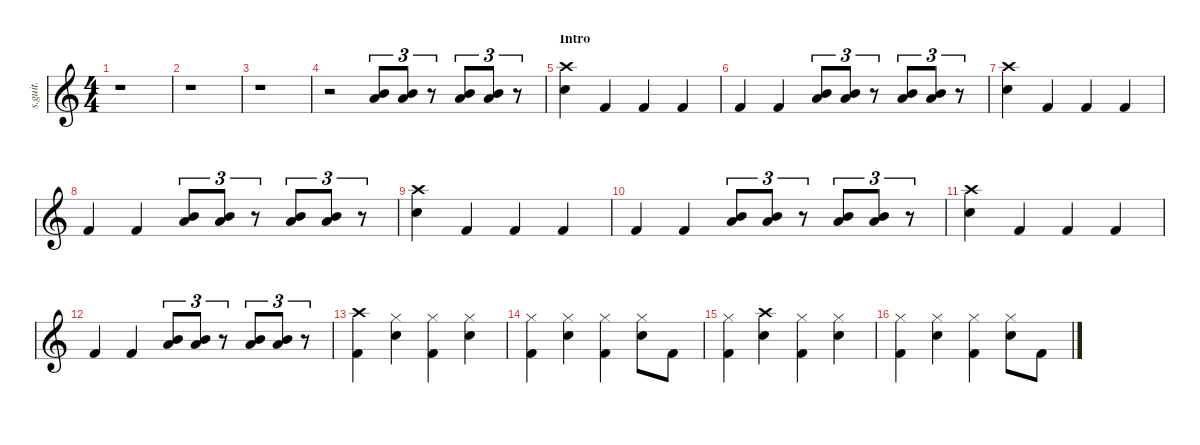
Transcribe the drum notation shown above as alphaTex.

\defaultSystemsLayout 4
\hideDynamics
\bracketExtendMode nobrackets
\track ("Lars Ulrich (Drums)" "s.guit.") {instrument percussion}
\staff {score}
\articulation defaults
\ts (4 4)
\beaming (8 2 2 2 2)
\tempo (118 hide)
\clef g2
\ks c
r.1{dy f} |
r.1 |
r.1 |
r.2 ("Low Tom (hit)" "Mid Tom (hit)").8{tu (3 2) lyrics (0 "") lyrics (1 "") lyrics (2 "") lyrics (3 "") lyrics (4 "")} ("Low Tom (hit)" "Mid Tom (hit)").8{tu (3 2) lyrics (0 "") lyrics (1 "") lyrics (2 "") lyrics (3 "") lyrics (4 "")} r.8{tu (3 2)} ("Low Tom (hit)" "Mid Tom (hit)").8{tu (3 2) lyrics (0 "") lyrics (1 "") lyrics (2 "") lyrics (3 "") lyrics (4 "")} ("Low Tom (hit)" "Mid Tom (hit)").8{tu (3 2) lyrics (0 "") lyrics (1 "") lyrics (2 "") lyrics (3 "") lyrics (4 "")} r.8{tu (3 2)} |
\section ("" "Intro")
("Crash high (hit)" "Snare (hit) 2").4{lyrics (0 "") lyrics (1 "") lyrics (2 "") lyrics (3 "") lyrics (4 "")} "Kick (hit) 2".4{lyrics (0 "") lyrics (1 "") lyrics (2 "") lyrics (3 "") lyrics (4 "")} "Kick (hit) 2".4{lyrics (0 "") lyrics (1 "") lyrics (2 "") lyrics (3 "") lyrics (4 "")} "Kick (hit) 2".4{lyrics (0 "") lyrics (1 "") lyrics (2 "") lyrics (3 "") lyrics (4 "")} |
"Kick (hit) 2".4{lyrics (0 "") lyrics (1 "") lyrics (2 "") lyrics (3 "") lyrics (4 "")} "Kick (hit) 2".4{lyrics (0 "") lyrics (1 "") lyrics (2 "") lyrics (3 "") lyrics (4 "")} ("Low Tom (hit)" "Mid Tom (hit)").8{tu (3 2) lyrics (0 "") lyrics (1 "") lyrics (2 "") lyrics (3 "") lyrics (4 "")} ("Low Tom (hit)" "Mid Tom (hit)").8{tu (3 2) lyrics (0 "") lyrics (1 "") lyrics (2 "") lyrics (3 "") lyrics (4 "")} r.8{tu (3 2)} ("Low Tom (hit)" "Mid Tom (hit)").8{tu (3 2) lyrics (0 "") lyrics (1 "") lyrics (2 "") lyrics (3 "") lyrics (4 "")} ("Low Tom (hit)" "Mid Tom (hit)").8{tu (3 2) lyrics (0 "") lyrics (1 "") lyrics (2 "") lyrics (3 "") lyrics (4 "")} r.8{tu (3 2)} |
("Crash high (hit)" "Snare (hit) 2").4{lyrics (0 "") lyrics (1 "") lyrics (2 "") lyrics (3 "") lyrics (4 "")} "Kick (hit) 2".4{lyrics (0 "") lyrics (1 "") lyrics (2 "") lyrics (3 "") lyrics (4 "")} "Kick (hit) 2".4{lyrics (0 "") lyrics (1 "") lyrics (2 "") lyrics (3 "") lyrics (4 "")} "Kick (hit) 2".4{lyrics (0 "") lyrics (1 "") lyrics (2 "") lyrics (3 "") lyrics (4 "")} |
"Kick (hit) 2".4{lyrics (0 "") lyrics (1 "") lyrics (2 "") lyrics (3 "") lyrics (4 "")} "Kick (hit) 2".4{lyrics (0 "") lyrics (1 "") lyrics (2 "") lyrics (3 "") lyrics (4 "")} ("Low Tom (hit)" "Mid Tom (hit)").8{tu (3 2) lyrics (0 "") lyrics (1 "") lyrics (2 "") lyrics (3 "") lyrics (4 "")} ("Low Tom (hit)" "Mid Tom (hit)").8{tu (3 2) lyrics (0 "") lyrics (1 "") lyrics (2 "") lyrics (3 "") lyrics (4 "")} r.8{tu (3 2)} ("Low Tom (hit)" "Mid Tom (hit)").8{tu (3 2) lyrics (0 "") lyrics (1 "") lyrics (2 "") lyrics (3 "") lyrics (4 "")} ("Low Tom (hit)" "Mid Tom (hit)").8{tu (3 2) lyrics (0 "") lyrics (1 "") lyrics (2 "") lyrics (3 "") lyrics (4 "")} r.8{tu (3 2)} |
("Crash high (hit)" "Snare (hit) 2").4{lyrics (0 "") lyrics (1 "") lyrics (2 "") lyrics (3 "") lyrics (4 "")} "Kick (hit) 2".4{lyrics (0 "") lyrics (1 "") lyrics (2 "") lyrics (3 "") lyrics (4 "")} "Kick (hit) 2".4{lyrics (0 "") lyrics (1 "") lyrics (2 "") lyrics (3 "") lyrics (4 "")} "Kick (hit) 2".4{lyrics (0 "") lyrics (1 "") lyrics (2 "") lyrics (3 "") lyrics (4 "")} |
"Kick (hit) 2".4{lyrics (0 "") lyrics (1 "") lyrics (2 "") lyrics (3 "") lyrics (4 "")} "Kick (hit) 2".4{lyrics (0 "") lyrics (1 "") lyrics (2 "") lyrics (3 "") lyrics (4 "")} ("Low Tom (hit)" "Mid Tom (hit)").8{tu (3 2) lyrics (0 "") lyrics (1 "") lyrics (2 "") lyrics (3 "") lyrics (4 "")} ("Low Tom (hit)" "Mid Tom (hit)").8{tu (3 2) lyrics (0 "") lyrics (1 "") lyrics (2 "") lyrics (3 "") lyrics (4 "")} r.8{tu (3 2)} ("Low Tom (hit)" "Mid Tom (hit)").8{tu (3 2) lyrics (0 "") lyrics (1 "") lyrics (2 "") lyrics (3 "") lyrics (4 "")} ("Low Tom (hit)" "Mid Tom (hit)").8{tu (3 2) lyrics (0 "") lyrics (1 "") lyrics (2 "") lyrics (3 "") lyrics (4 "")} r.8{tu (3 2)} |
("Crash high (hit)" "Snare (hit) 2").4{lyrics (0 "") lyrics (1 "") lyrics (2 "") lyrics (3 "") lyrics (4 "")} "Kick (hit) 2".4{lyrics (0 "") lyrics (1 "") lyrics (2 "") lyrics (3 "") lyrics (4 "")} "Kick (hit) 2".4{lyrics (0 "") lyrics (1 "") lyrics (2 "") lyrics (3 "") lyrics (4 "")} "Kick (hit) 2".4{lyrics (0 "") lyrics (1 "") lyrics (2 "") lyrics (3 "") lyrics (4 "")} |
"Kick (hit) 2".4{lyrics (0 "") lyrics (1 "") lyrics (2 "") lyrics (3 "") lyrics (4 "")} "Kick (hit) 2".4{lyrics (0 "") lyrics (1 "") lyrics (2 "") lyrics (3 "") lyrics (4 "")} ("Low Tom (hit)" "Mid Tom (hit)").8{tu (3 2) lyrics (0 "") lyrics (1 "") lyrics (2 "") lyrics (3 "") lyrics (4 "")} ("Low Tom (hit)" "Mid Tom (hit)").8{tu (3 2) lyrics (0 "") lyrics (1 "") lyrics (2 "") lyrics (3 "") lyrics (4 "")} r.8{tu (3 2)} ("Low Tom (hit)" "Mid Tom (hit)").8{tu (3 2) lyrics (0 "") lyrics (1 "") lyrics (2 "") lyrics (3 "") lyrics (4 "")} ("Low Tom (hit)" "Mid Tom (hit)").8{tu (3 2) lyrics (0 "") lyrics (1 "") lyrics (2 "") lyrics (3 "") lyrics (4 "")} r.8{tu (3 2)} |
("Crash high (hit)" "Kick (hit) 2").4{lyrics (0 "") lyrics (1 "") lyrics (2 "") lyrics (3 "") lyrics (4 "")} ("Hi-Hat (closed)" "Snare (hit) 2").4{lyrics (0 "") lyrics (1 "") lyrics (2 "") lyrics (3 "") lyrics (4 "")} ("Hi-Hat (closed)" "Kick (hit) 2").4{lyrics (0 "") lyrics (1 "") lyrics (2 "") lyrics (3 "") lyrics (4 "")} ("Hi-Hat (closed)" "Snare (hit) 2").4{lyrics (0 "") lyrics (1 "") lyrics (2 "") lyrics (3 "") lyrics (4 "")} |
("Hi-Hat (closed)" "Kick (hit) 2").4{lyrics (0 "") lyrics (1 "") lyrics (2 "") lyrics (3 "") lyrics (4 "")} ("Hi-Hat (closed)" "Snare (hit) 2").4{lyrics (0 "") lyrics (1 "") lyrics (2 "") lyrics (3 "") lyrics (4 "")} ("Hi-Hat (closed)" "Kick (hit) 2").4{lyrics (0 "") lyrics (1 "") lyrics (2 "") lyrics (3 "") lyrics (4 "")} ("Hi-Hat (closed)" "Snare (hit) 2").8{lyrics (0 "") lyrics (1 "") lyrics (2 "") lyrics (3 "") lyrics (4 "")} "Kick (hit) 2".8{lyrics (0 "") lyrics (1 "") lyrics (2 "") lyrics (3 "") lyrics (4 "")} |
("Hi-Hat (closed)" "Kick (hit) 2").4{lyrics (0 "") lyrics (1 "") lyrics (2 "") lyrics (3 "") lyrics (4 "")} ("Crash high (hit)" "Snare (hit) 2").4{lyrics (0 "") lyrics (1 "") lyrics (2 "") lyrics (3 "") lyrics (4 "")} ("Hi-Hat (closed)" "Kick (hit) 2").4{lyrics (0 "") lyrics (1 "") lyrics (2 "") lyrics (3 "") lyrics (4 "")} ("Hi-Hat (closed)" "Snare (hit) 2").4{lyrics (0 "") lyrics (1 "") lyrics (2 "") lyrics (3 "") lyrics (4 "")} |
("Hi-Hat (closed)" "Kick (hit) 2").4{lyrics (0 "") lyrics (1 "") lyrics (2 "") lyrics (3 "") lyrics (4 "")} ("Hi-Hat (closed)" "Snare (hit) 2").4{lyrics (0 "") lyrics (1 "") lyrics (2 "") lyrics (3 "") lyrics (4 "")} ("Hi-Hat (closed)" "Kick (hit) 2").4{lyrics (0 "") lyrics (1 "") lyrics (2 "") lyrics (3 "") lyrics (4 "")} ("Hi-Hat (closed)" "Snare (hit) 2").8{lyrics (0 "") lyrics (1 "") lyrics (2 "") lyrics (3 "") lyrics (4 "")} "Kick (hit) 2".8{lyrics (0 "") lyrics (1 "") lyrics (2 "") lyrics (3 "") lyrics (4 "")}
